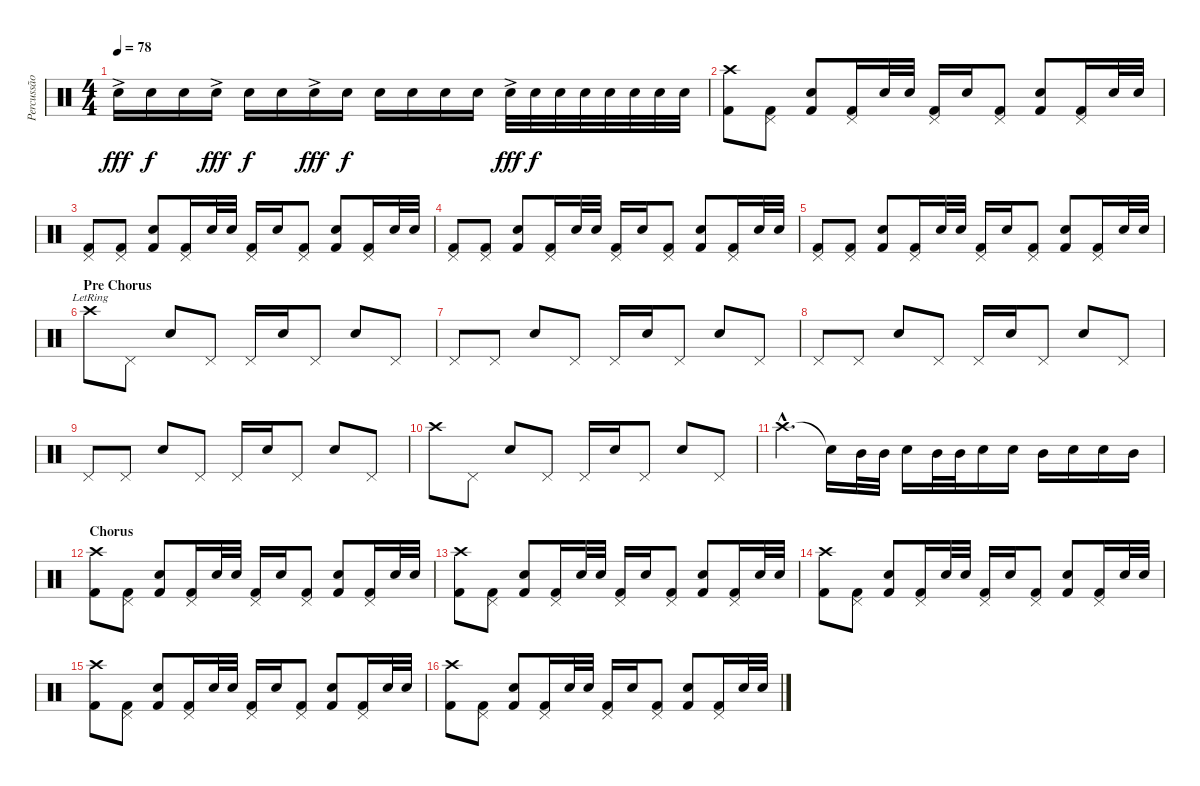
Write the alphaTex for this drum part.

\track ("Percussão" "Percussão") {instrument percussion}
\staff {score}
\articulation defaults
\ts (4 4)
\tempo 78
\clef neutral
\ks c "Electric Snare (hit)"{ac}.16{dy fff} "Electric Snare (hit)".16{dy f} "Electric Snare (hit)".16 "Electric Snare (hit)"{ac}.16{dy fff} "Electric Snare (hit)".16{dy f} "Electric Snare (hit)".16 "Electric Snare (hit)"{ac}.16{dy fff} "Electric Snare (hit)".16{dy f} "Electric Snare (hit)".16 "Electric Snare (hit)".16 "Electric Snare (hit)".16 "Electric Snare (hit)".16 "Electric Snare (hit)"{ac}.32{dy fff} "Electric Snare (hit)".32{dy f} "Electric Snare (hit)".32 "Electric Snare (hit)".32 "Electric Snare (hit)".32 "Electric Snare (hit)".32 "Electric Snare (hit)".32 "Electric Snare (hit)".32
|
("Crash high (hit)" "Kick (hit) 2").8{volume 14} ("Pedal Hi-Hat (hit)" "Kick (hit) 2").8 ("Electric Snare (hit)" "Kick (hit) 2").8 ("Pedal Hi-Hat (hit)" "Kick (hit) 2").16 "Electric Snare (hit)".32 "Electric Snare (hit)".32 ("Pedal Hi-Hat (hit)" "Kick (hit) 2").16 "Electric Snare (hit)".16 ("Pedal Hi-Hat (hit)" "Kick (hit) 2").8 ("Electric Snare (hit)" "Kick (hit) 2").8 ("Pedal Hi-Hat (hit)" "Kick (hit) 2").16 "Electric Snare (hit)".32 "Electric Snare (hit)".32 |
("Pedal Hi-Hat (hit)" "Kick (hit) 2").8 ("Pedal Hi-Hat (hit)" "Kick (hit) 2").8 ("Electric Snare (hit)" "Kick (hit) 2").8 ("Pedal Hi-Hat (hit)" "Kick (hit) 2").16 "Electric Snare (hit)".32 "Electric Snare (hit)".32 ("Pedal Hi-Hat (hit)" "Kick (hit) 2").16 "Electric Snare (hit)".16 ("Pedal Hi-Hat (hit)" "Kick (hit) 2").8 ("Electric Snare (hit)" "Kick (hit) 2").8 ("Pedal Hi-Hat (hit)" "Kick (hit) 2").16 "Electric Snare (hit)".32 "Electric Snare (hit)".32 |
("Pedal Hi-Hat (hit)" "Kick (hit) 2").8 ("Pedal Hi-Hat (hit)" "Kick (hit) 2").8 ("Electric Snare (hit)" "Kick (hit) 2").8 ("Pedal Hi-Hat (hit)" "Kick (hit) 2").16 "Electric Snare (hit)".32 "Electric Snare (hit)".32 ("Pedal Hi-Hat (hit)" "Kick (hit) 2").16 "Electric Snare (hit)".16 ("Pedal Hi-Hat (hit)" "Kick (hit) 2").8 ("Electric Snare (hit)" "Kick (hit) 2").8 ("Pedal Hi-Hat (hit)" "Kick (hit) 2").16 "Electric Snare (hit)".32 "Electric Snare (hit)".32 |
("Pedal Hi-Hat (hit)" "Kick (hit) 2").8 ("Pedal Hi-Hat (hit)" "Kick (hit) 2").8 ("Electric Snare (hit)" "Kick (hit) 2").8 ("Pedal Hi-Hat (hit)" "Kick (hit) 2").16 "Electric Snare (hit)".32 "Electric Snare (hit)".32 ("Pedal Hi-Hat (hit)" "Kick (hit) 2").16 "Electric Snare (hit)".16 ("Pedal Hi-Hat (hit)" "Kick (hit) 2").8 ("Electric Snare (hit)" "Kick (hit) 2").8 ("Pedal Hi-Hat (hit)" "Kick (hit) 2").16 "Electric Snare (hit)".32 "Electric Snare (hit)".32 |
\section ("" "Pre Chorus")
"Crash high (hit)"{lr}.8 "Pedal Hi-Hat (hit)".8 "Electric Snare (hit)".8 "Pedal Hi-Hat (hit)".8 "Pedal Hi-Hat (hit)".16 "Electric Snare (hit)".16 "Pedal Hi-Hat (hit)".8 "Electric Snare (hit)".8 "Pedal Hi-Hat (hit)".8 |
"Pedal Hi-Hat (hit)".8 "Pedal Hi-Hat (hit)".8 "Electric Snare (hit)".8 "Pedal Hi-Hat (hit)".8 "Pedal Hi-Hat (hit)".16 "Electric Snare (hit)".16 "Pedal Hi-Hat (hit)".8 "Electric Snare (hit)".8 "Pedal Hi-Hat (hit)".8 |
"Pedal Hi-Hat (hit)".8 "Pedal Hi-Hat (hit)".8 "Electric Snare (hit)".8 "Pedal Hi-Hat (hit)".8 "Pedal Hi-Hat (hit)".16 "Electric Snare (hit)".16 "Pedal Hi-Hat (hit)".8 "Electric Snare (hit)".8 "Pedal Hi-Hat (hit)".8 |
"Pedal Hi-Hat (hit)".8 "Pedal Hi-Hat (hit)".8 "Electric Snare (hit)".8 "Pedal Hi-Hat (hit)".8 "Pedal Hi-Hat (hit)".16 "Electric Snare (hit)".16 "Pedal Hi-Hat (hit)".8 "Electric Snare (hit)".8 "Pedal Hi-Hat (hit)".8 |
"Crash high (hit)".8 "Pedal Hi-Hat (hit)".8 "Electric Snare (hit)".8 "Pedal Hi-Hat (hit)".8 "Pedal Hi-Hat (hit)".16 "Electric Snare (hit)".16 "Pedal Hi-Hat (hit)".8 "Electric Snare (hit)".8 "Pedal Hi-Hat (hit)".8 |
"Crash high (hit)"{hac}.4{d} "Snare (hit)"{t}.16 "Mid Tom (hit)".32 "Mid Tom (hit)".32 "Electric Snare (hit)".16 "Mid Tom (hit)".32 "Mid Tom (hit)".32 "Electric Snare (hit)".16 "Electric Snare (hit)".16 "Mid Tom (hit)".16 "Electric Snare (hit)".16 "Electric Snare (hit)".16 "Mid Tom (hit)".16 |
\section ("" "Chorus")
("Crash high (hit)" "Kick (hit) 2").8 ("Pedal Hi-Hat (hit)" "Kick (hit) 2").8 ("Electric Snare (hit)" "Kick (hit) 2").8 ("Pedal Hi-Hat (hit)" "Kick (hit) 2").16 "Electric Snare (hit)".32 "Electric Snare (hit)".32 ("Pedal Hi-Hat (hit)" "Kick (hit) 2").16 "Electric Snare (hit)".16 ("Pedal Hi-Hat (hit)" "Kick (hit) 2").8 ("Electric Snare (hit)" "Kick (hit) 2").8 ("Pedal Hi-Hat (hit)" "Kick (hit) 2").16 "Electric Snare (hit)".32 "Electric Snare (hit)".32 |
("Crash high (hit)" "Kick (hit) 2").8 ("Pedal Hi-Hat (hit)" "Kick (hit) 2").8 ("Electric Snare (hit)" "Kick (hit) 2").8 ("Pedal Hi-Hat (hit)" "Kick (hit) 2").16 "Electric Snare (hit)".32 "Electric Snare (hit)".32 ("Pedal Hi-Hat (hit)" "Kick (hit) 2").16 "Electric Snare (hit)".16 ("Pedal Hi-Hat (hit)" "Kick (hit) 2").8 ("Electric Snare (hit)" "Kick (hit) 2").8 ("Pedal Hi-Hat (hit)" "Kick (hit) 2").16 "Electric Snare (hit)".32 "Electric Snare (hit)".32 |
("Crash high (hit)" "Kick (hit) 2").8 ("Pedal Hi-Hat (hit)" "Kick (hit) 2").8 ("Electric Snare (hit)" "Kick (hit) 2").8 ("Pedal Hi-Hat (hit)" "Kick (hit) 2").16 "Electric Snare (hit)".32 "Electric Snare (hit)".32 ("Pedal Hi-Hat (hit)" "Kick (hit) 2").16 "Electric Snare (hit)".16 ("Pedal Hi-Hat (hit)" "Kick (hit) 2").8 ("Electric Snare (hit)" "Kick (hit) 2").8 ("Pedal Hi-Hat (hit)" "Kick (hit) 2").16 "Electric Snare (hit)".32 "Electric Snare (hit)".32 |
("Crash high (hit)" "Kick (hit) 2").8 ("Pedal Hi-Hat (hit)" "Kick (hit) 2").8 ("Electric Snare (hit)" "Kick (hit) 2").8 ("Pedal Hi-Hat (hit)" "Kick (hit) 2").16 "Electric Snare (hit)".32 "Electric Snare (hit)".32 ("Pedal Hi-Hat (hit)" "Kick (hit) 2").16 "Electric Snare (hit)".16 ("Pedal Hi-Hat (hit)" "Kick (hit) 2").8 ("Electric Snare (hit)" "Kick (hit) 2").8 ("Pedal Hi-Hat (hit)" "Kick (hit) 2").16 "Electric Snare (hit)".32 "Electric Snare (hit)".32 |
("Crash high (hit)" "Kick (hit) 2").8 ("Pedal Hi-Hat (hit)" "Kick (hit) 2").8 ("Electric Snare (hit)" "Kick (hit) 2").8 ("Pedal Hi-Hat (hit)" "Kick (hit) 2").16 "Electric Snare (hit)".32 "Electric Snare (hit)".32 ("Pedal Hi-Hat (hit)" "Kick (hit) 2").16 "Electric Snare (hit)".16 ("Pedal Hi-Hat (hit)" "Kick (hit) 2").8 ("Electric Snare (hit)" "Kick (hit) 2").8 ("Pedal Hi-Hat (hit)" "Kick (hit) 2").16 "Electric Snare (hit)".32 "Electric Snare (hit)".32
